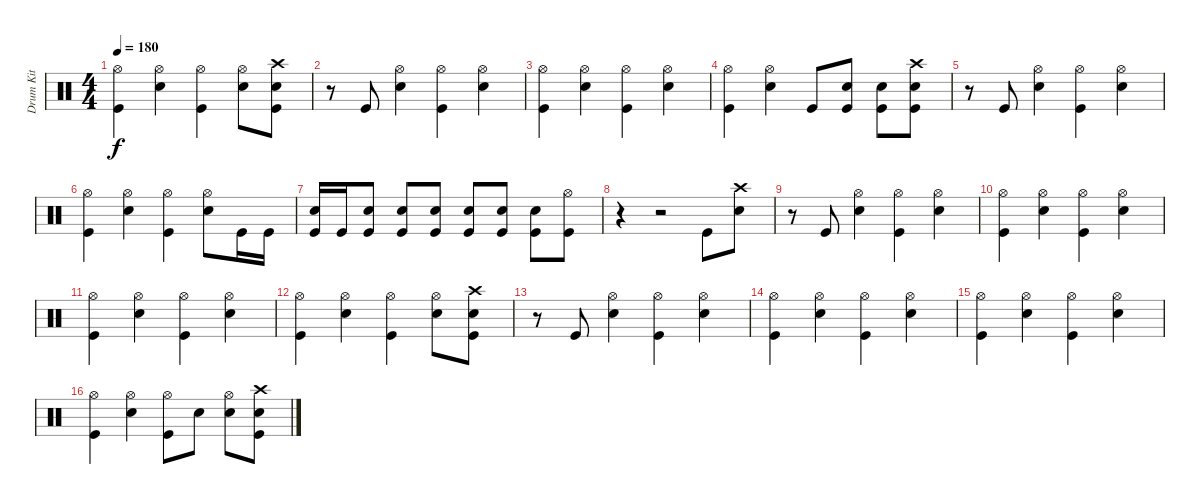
\track ("Drum Kit" "Drum Kit") {instrument percussion}
\staff {score}
\articulation defaults
\ts (4 4)
\tempo 180
\clef neutral
\ks c
("Kick (hit)" "Hi-Hat (open)").4{dy f} ("Snare (hit) 2" "Hi-Hat (open)").4 ("Kick (hit)" "Hi-Hat (open)").4 ("Snare (hit) 2" "Hi-Hat (open)").8 ("Snare (hit) 2" "Crash high (hit)" "Kick (hit)").8 |
r.8 "Kick (hit)".8 ("Snare (hit) 2" "Hi-Hat (open)").4 ("Kick (hit)" "Hi-Hat (open)").4 ("Snare (hit) 2" "Hi-Hat (open)").4 |
("Kick (hit)" "Hi-Hat (open)").4 ("Snare (hit) 2" "Hi-Hat (open)").4 ("Kick (hit)" "Hi-Hat (open)").4 ("Snare (hit) 2" "Hi-Hat (open)").4 |
("Kick (hit)" "Hi-Hat (open)").4 ("Snare (hit) 2" "Hi-Hat (open)").4 "Kick (hit)".8 ("Kick (hit)" "Snare (hit) 2").8 ("Kick (hit)" "Snare (hit) 2").8 ("Kick (hit)" "Snare (hit) 2" "Crash high (hit)").8 |
r.8 "Kick (hit)".8 ("Snare (hit) 2" "Hi-Hat (open)").4 ("Kick (hit)" "Hi-Hat (open)").4 ("Snare (hit) 2" "Hi-Hat (open)").4 |
("Kick (hit)" "Hi-Hat (open)").4 ("Snare (hit) 2" "Hi-Hat (open)").4 ("Kick (hit)" "Hi-Hat (open)").4 ("Snare (hit) 2" "Hi-Hat (open)").8 "Kick (hit)".16 "Kick (hit)".16{volume 7} |
("Snare (hit) 2" "Kick (hit)").16{volume 16} "Kick (hit)".16 ("Kick (hit)" "Snare (hit) 2").8 ("Snare (hit) 2" "Kick (hit)").8 ("Snare (hit) 2" "Kick (hit)").8 ("Snare (hit) 2" "Kick (hit)").8 ("Snare (hit) 2" "Kick (hit)").8 ("Snare (hit) 2" "Kick (hit)").8 ("Kick (hit)" "Hi-Hat (open)").8 |
r.4 r.2 "Kick (hit)".8 ("Snare (hit) 2" "Crash high (hit)").8 |
r.8 "Kick (hit)".8 ("Snare (hit) 2" "Hi-Hat (open)").4 ("Kick (hit)" "Hi-Hat (open)").4 ("Snare (hit) 2" "Hi-Hat (open)").4 |
("Kick (hit)" "Hi-Hat (open)").4 ("Snare (hit) 2" "Hi-Hat (open)").4 ("Kick (hit)" "Hi-Hat (open)").4 ("Snare (hit) 2" "Hi-Hat (open)").4 |
("Kick (hit)" "Hi-Hat (open)").4 ("Snare (hit) 2" "Hi-Hat (open)").4 ("Kick (hit)" "Hi-Hat (open)").4 ("Snare (hit) 2" "Hi-Hat (open)").4 |
("Kick (hit)" "Hi-Hat (open)").4 ("Snare (hit) 2" "Hi-Hat (open)").4 ("Kick (hit)" "Hi-Hat (open)").4 ("Snare (hit) 2" "Hi-Hat (open)").8 ("Snare (hit) 2" "Crash high (hit)" "Kick (hit)").8 |
r.8 "Kick (hit)".8 ("Snare (hit) 2" "Hi-Hat (open)").4 ("Kick (hit)" "Hi-Hat (open)").4 ("Snare (hit) 2" "Hi-Hat (open)").4 |
("Kick (hit)" "Hi-Hat (open)").4 ("Snare (hit) 2" "Hi-Hat (open)").4 ("Kick (hit)" "Hi-Hat (open)").4 ("Snare (hit) 2" "Hi-Hat (open)").4 |
("Kick (hit)" "Hi-Hat (open)").4 ("Snare (hit) 2" "Hi-Hat (open)").4 ("Kick (hit)" "Hi-Hat (open)").4 ("Snare (hit) 2" "Hi-Hat (open)").4 |
("Kick (hit)" "Hi-Hat (open)").4 ("Snare (hit) 2" "Hi-Hat (open)").4 ("Kick (hit)" "Hi-Hat (open)").8 "Snare (hit) 2".8 ("Snare (hit) 2" "Hi-Hat (open)").8 ("Snare (hit) 2" "Crash high (hit)" "Kick (hit)").8
